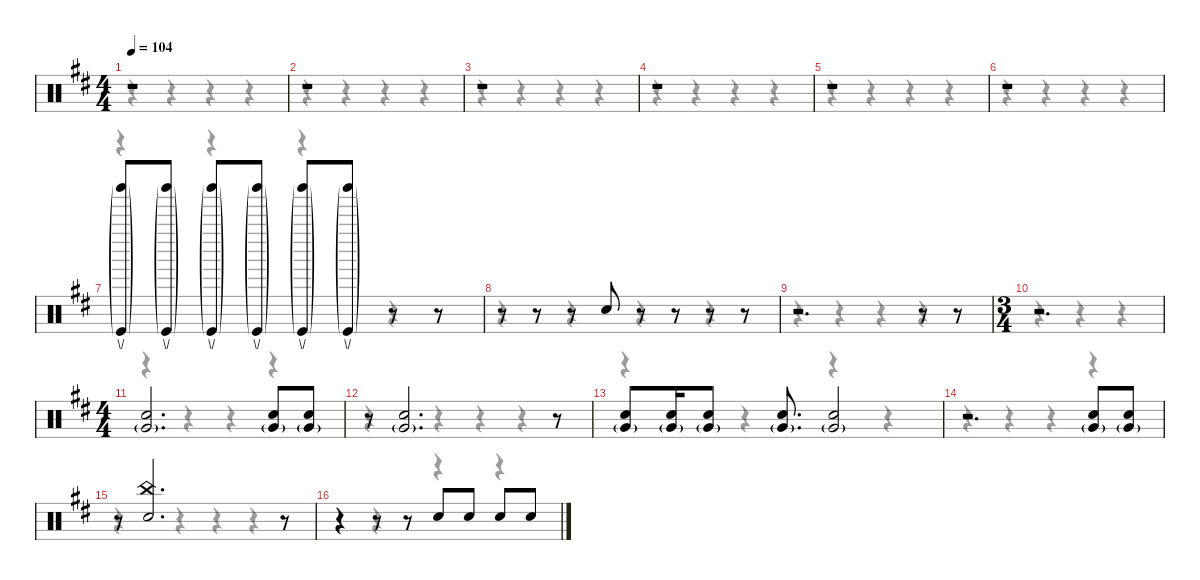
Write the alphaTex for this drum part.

\defaultSystemsLayout 4
\hideDynamics
\bracketExtendMode nobrackets
\singleTrackTrackNamePolicy hidden
\multiTrackTrackNamePolicy hidden
\firstSystemTrackNameMode fullname
\otherSystemsTrackNameOrientation horizontal
\track ("Drums" "drm.") {instrument percussion}
\staff {score}
\articulation defaults
\voice
\ts (4 4)
\tempo 104
\clef neutral
\ks bminor
r.1{dy mf beam Up} |
r.1{beam Up} |
r.1{beam Up} |
r.1{beam Up} |
r.1{beam Up} |
r.1{beam Up} |
("Shaker (return)"{g acc forcenatural} "Kick (hit)"{g acc forcenatural}).8{dy pp beam Up} ("Shaker (return)"{g acc forcenatural} "Kick (hit)"{g acc forcenatural}).8{dy p beam Up} ("Shaker (return)"{g acc forcenatural} "Kick (hit)"{g acc forcenatural}).8{beam Up} ("Shaker (return)"{g acc forcenatural} "Kick (hit)"{g acc forcenatural}).8{dy mp beam Up} ("Shaker (return)"{g acc forcenatural} "Kick (hit)"{g acc forcenatural}).8{beam Up} ("Shaker (return)"{g acc forcenatural} "Kick (hit)"{g acc forcenatural}).8{beam Up} r.8{beam Up} r.8{beam Up} |
r.8{beam Up} r.8{beam Up} r.8{beam Up} "Snare (hit) 2"{acc forcenatural}.8{dy f beam Up} r.8{beam Up} r.8{beam Up} r.8{beam Up} r.8{beam Up} |
r.2{d beam Up} r.8{beam Up} r.8{beam Up} |
\ts (3 4)
\beaming (8 2 2 2)
r.2{d beam Up} |
\ts (4 4)
\beaming (8 2 2 2 2)
("Snare (hit) 2"{acc forcenatural} "Very Low Tom (hit)"{g acc forcenatural}).2{d beam Up} ("Snare (hit) 2"{acc forcenatural} "Very Low Tom (hit)"{g acc forcenatural}).8{beam Up} ("Snare (hit) 2"{acc forcenatural} "Very Low Tom (hit)"{g acc forcenatural}).8{beam Up} |
r.8{beam Up} ("Snare (hit) 2"{acc forcenatural} "Very Low Tom (hit)"{g acc forcenatural}).2{d beam Up} r.8{beam Up} |
("Snare (hit) 2"{acc forcenatural} "Very Low Tom (hit)"{g acc forcenatural}).8{beam Up} ("Snare (hit) 2"{acc forcenatural} "Very Low Tom (hit)"{g acc forcenatural}).16{beam Up} ("Snare (hit) 2"{acc forcenatural} "Very Low Tom (hit)"{g acc forcenatural}).8{beam Up} ("Snare (hit) 2"{acc forcenatural} "Very Low Tom (hit)"{g acc forcenatural}).8{d beam Up} ("Snare (hit) 2"{acc forcenatural} "Very Low Tom (hit)"{g acc forcenatural}).2{beam Up} |
r.2{d beam Up} ("Snare (hit) 2"{acc forcenatural} "Very Low Tom (hit)"{g acc forcenatural}).8{beam Up} ("Snare (hit) 2"{acc forcenatural} "Very Low Tom (hit)"{g acc forcenatural}).8{beam Up} |
r.8{beam Up} ("China (hit)"{acc forcenatural} "Snare (hit) 2"{acc forcenatural}).2{d beam Up} r.8{beam Up} |
r.4{beam Up} r.8{beam Up} r.8{beam Up} "Snare (hit) 2"{acc forcenatural}.8{dy pp beam Up} "Snare (hit) 2"{acc forcenatural}.8{dy mp beam Up} "Snare (hit) 2"{acc forcenatural}.8{dy mf beam Up} "Snare (hit) 2"{acc forcenatural}.8{dy mp beam Up}
\voice
\clef neutral
\ottava regular
\simile none
\ks bminor
r.4{dy mf beam Down} r.4{beam Down} r.4{beam Down} r.4{beam Down} |
r.4{beam Down} r.4{beam Down} r.4{beam Down} r.4{beam Down} |
r.4{beam Down} r.4{beam Down} r.4{beam Down} r.4{beam Down} |
r.4{beam Down} r.4{beam Down} r.4{beam Down} r.4{beam Down} |
r.4{beam Down} r.4{beam Down} r.4{beam Down} r.4{beam Down} |
r.4{beam Down} r.4{beam Down} r.4{beam Down} r.4{beam Down} |
r.4{beam Down} r.4{beam Down} r.4{beam Down} r.4{beam Down} |
r.4{beam Down} r.4{beam Down} r.4{beam Down} r.4{beam Down} |
r.4{beam Down} r.4{beam Down} r.4{beam Down} r.4{beam Down} |
r.4{beam Down} r.4{beam Down} r.4{beam Down} |
r.4{beam Down} r.4{beam Down} r.4{beam Down} r.4{beam Down} |
r.4{beam Down} r.4{beam Down} r.4{beam Down} r.4{beam Down} |
r.4{beam Down} r.4{beam Down} r.4{beam Down} r.4{beam Down} |
r.4{beam Down} r.4{beam Down} r.4{beam Down} r.4{beam Down} |
r.4{beam Down} r.4{beam Down} r.4{beam Down} r.4{beam Down} |
r.4{beam Down} r.4{beam Down} r.4{beam Down} r.4{beam Down}
